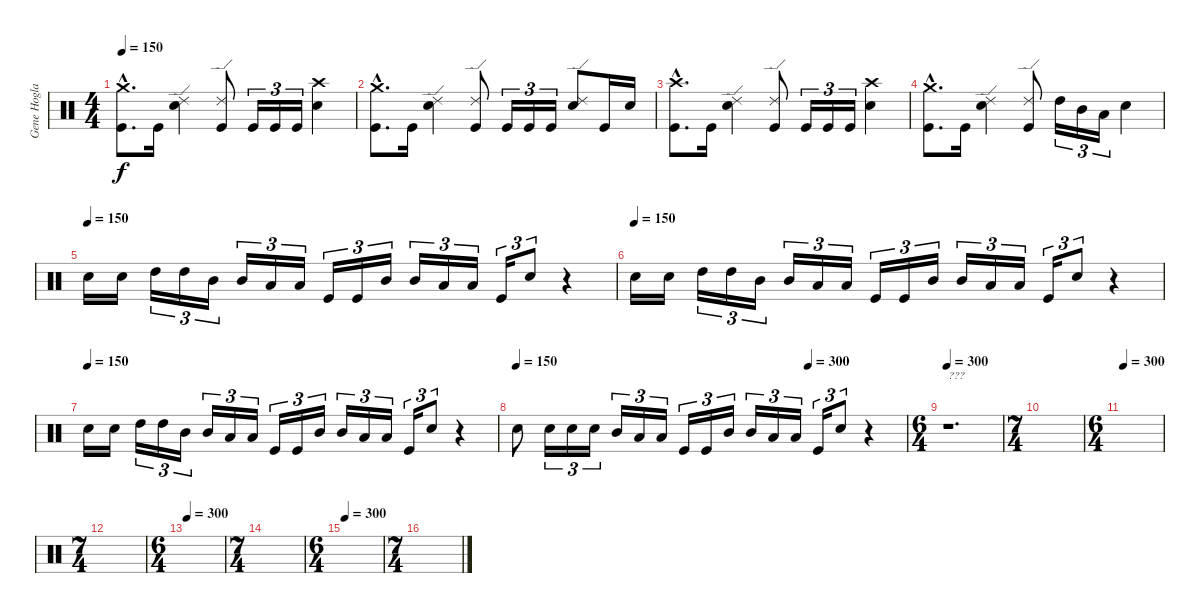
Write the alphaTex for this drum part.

\track ("Gene Hoglan" "Gene Hogla") {instrument percussion}
\staff {score}
\articulation defaults
\ts (4 4)
\tempo 150
\clef neutral
\ks c
("Crash medium (hit)"{hac} "Kick (hit)"{hac}).8{d dy f} "Kick (hit)".16 ("Ride (edge) 2" "Electric Snare (hit)").4 ("Ride (edge) 2" "Kick (hit)").8 "Kick (hit)".16{tu (3 2)} "Kick (hit)".16{tu (3 2)} "Kick (hit)".16{tu (3 2)} ("Crash high (hit)" "Electric Snare (hit)").4 |
("Crash medium (hit)"{hac} "Kick (hit)"{hac}).8{d} "Kick (hit)".16 ("Ride (edge) 2" "Electric Snare (hit)").4 ("Ride (edge) 2" "Kick (hit)").8 "Kick (hit)".16{tu (3 2)} "Kick (hit)".16{tu (3 2)} "Kick (hit)".16{tu (3 2)} ("Ride (edge) 2" "Electric Snare (hit)").8 "Kick (hit)".16 "Electric Snare (hit)".16 |
("Crash high (hit)"{hac} "Kick (hit)"{hac}).8{d} "Kick (hit)".16 ("Ride (edge) 2" "Electric Snare (hit)").4 ("Ride (edge) 2" "Kick (hit)").8 "Kick (hit)".16{tu (3 2)} "Kick (hit)".16{tu (3 2)} "Kick (hit)".16{tu (3 2)} ("Crash high (hit)" "Electric Snare (hit)").4 |
("Crash medium (hit)"{hac} "Kick (hit)"{hac}).8{d} "Kick (hit)".16 ("Ride (edge) 2" "Electric Snare (hit)").4 ("Ride (edge) 2" "Kick (hit)").8 "High Tom (hit)".16{tu (3 2)} "Mid Tom (hit)".16{tu (3 2)} "Low Tom (hit)".16{tu (3 2)} "Electric Snare (hit)".4 |
\tempo (150)
"Electric Snare (hit)".16 "Electric Snare (hit)".16 "High Tom (hit)".16{tu (3 2)} "High Tom (hit)".16{tu (3 2)} "Mid Tom (hit)".16{tu (3 2)} "Mid Tom (hit)".16{tu (3 2)} "Low Tom (hit)".16{tu (3 2)} "Low Tom (hit)".16{tu (3 2)} "Kick (hit)".16{tu (3 2)} "Kick (hit)".16{tu (3 2)} "Mid Tom (hit)".16{tu (3 2)} "Mid Tom (hit)".16{tu (3 2)} "Low Tom (hit)".16{tu (3 2)} "Low Tom (hit)".16{tu (3 2)} "Kick (hit)".16{tu (3 2)} "Electric Snare (hit)".8{tu (3 2)} r.4 |
\tempo (150)
"Electric Snare (hit)".16 "Electric Snare (hit)".16 "High Tom (hit)".16{tu (3 2)} "High Tom (hit)".16{tu (3 2)} "Mid Tom (hit)".16{tu (3 2)} "Mid Tom (hit)".16{tu (3 2)} "Low Tom (hit)".16{tu (3 2)} "Low Tom (hit)".16{tu (3 2)} "Kick (hit)".16{tu (3 2)} "Kick (hit)".16{tu (3 2)} "Mid Tom (hit)".16{tu (3 2)} "Mid Tom (hit)".16{tu (3 2)} "Low Tom (hit)".16{tu (3 2)} "Low Tom (hit)".16{tu (3 2)} "Kick (hit)".16{tu (3 2)} "Electric Snare (hit)".8{tu (3 2)} r.4 |
\tempo (150)
"Electric Snare (hit)".16 "Electric Snare (hit)".16 "High Tom (hit)".16{tu (3 2)} "High Tom (hit)".16{tu (3 2)} "Mid Tom (hit)".16{tu (3 2)} "Mid Tom (hit)".16{tu (3 2)} "Low Tom (hit)".16{tu (3 2)} "Low Tom (hit)".16{tu (3 2)} "Kick (hit)".16{tu (3 2)} "Kick (hit)".16{tu (3 2)} "Mid Tom (hit)".16{tu (3 2)} "Mid Tom (hit)".16{tu (3 2)} "Low Tom (hit)".16{tu (3 2)} "Low Tom (hit)".16{tu (3 2)} "Kick (hit)".16{tu (3 2)} "Electric Snare (hit)".8{tu (3 2)} r.4 |
\tempo 150
\tempo (300 0.75)
"Electric Snare (hit)".8 "Electric Snare (hit)".16{tu (3 2)} "Electric Snare (hit)".16{tu (3 2)} "Electric Snare (hit)".16{tu (3 2)} "Mid Tom (hit)".16{tu (3 2)} "Low Tom (hit)".16{tu (3 2)} "Low Tom (hit)".16{tu (3 2)} "Kick (hit)".16{tu (3 2)} "Kick (hit)".16{tu (3 2)} "Mid Tom (hit)".16{tu (3 2)} "Mid Tom (hit)".16{tu (3 2)} "Low Tom (hit)".16{tu (3 2)} "Low Tom (hit)".16{tu (3 2)} "Kick (hit)".16{tu (3 2)} "Electric Snare (hit)".8{tu (3 2)} r.4 |
\ts (6 4)
\tempo 300
r.1{d txt "???"} |
\ts (7 4)
|
\ts (6 4)
\tempo 300
|
\ts (7 4)
|
\ts (6 4)
\tempo 300
|
\ts (7 4)
|
\ts (6 4)
\tempo 300
|
\ts (7 4)
